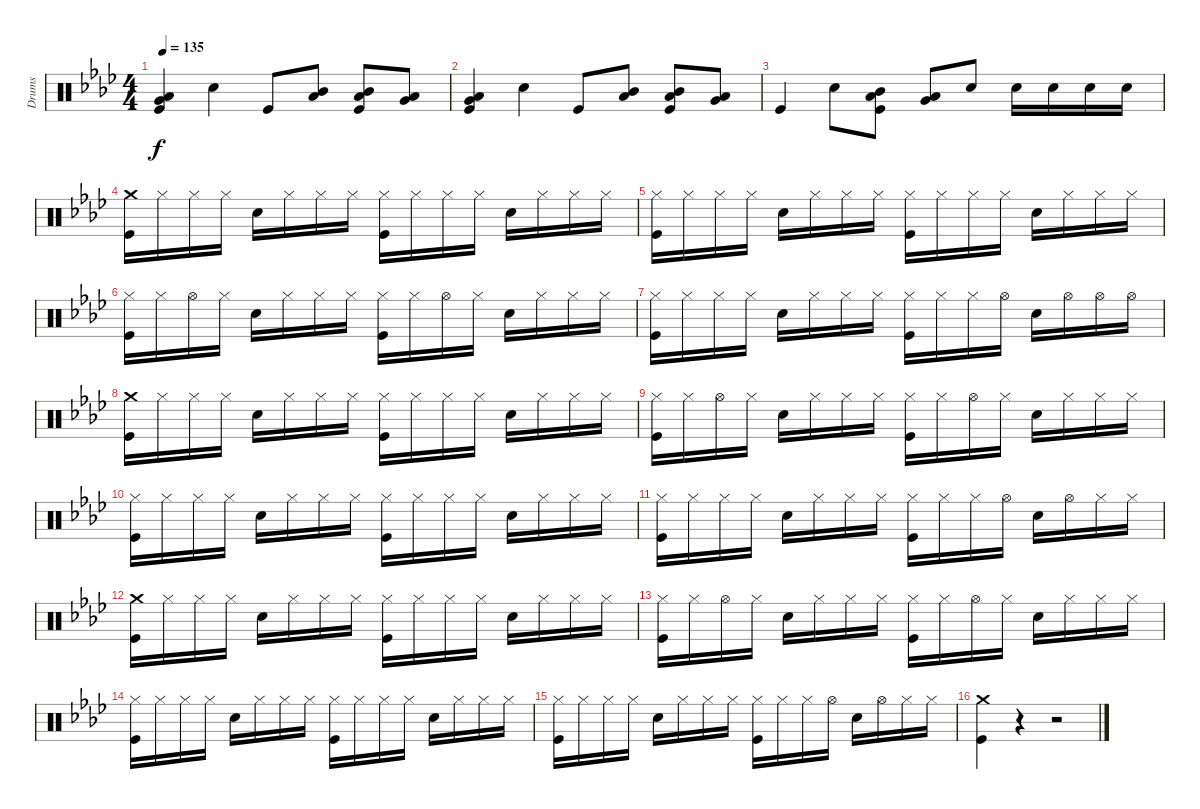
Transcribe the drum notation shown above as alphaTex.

\track ("Drums" "Drums") {instrument percussion}
\staff {score}
\articulation defaults
\ts (4 4)
\tempo 135
\clef neutral
\ks ab
("Very Low Tom (hit)" "Low Tom (hit)" "Kick (hit)").4{dy f} "Snare (hit) 2".4 "Kick (hit)".8 ("Low Tom (hit)" "Mid Tom (hit)").8 ("Low Tom (hit)" "Mid Tom (hit)" "Kick (hit)").8 ("Very Low Tom (hit)" "Low Tom (hit)").8 |
("Very Low Tom (hit)" "Low Tom (hit)" "Kick (hit)").4 "Snare (hit) 2".4 "Kick (hit)".8 ("Low Tom (hit)" "Mid Tom (hit)").8 ("Low Tom (hit)" "Mid Tom (hit)" "Kick (hit)").8 ("Very Low Tom (hit)" "Low Tom (hit)").8 |
"Kick (hit)".4 "Snare (hit) 2".8 ("Low Tom (hit)" "Mid Tom (hit)" "Kick (hit)").8 ("Very Low Tom (hit)" "Low Tom (hit)").8 "Snare (hit) 2".8 "Snare (hit) 2".16 "Snare (hit) 2".16 "Snare (hit) 2".16 "Snare (hit) 2".16 |
("Crash medium (hit)" "Kick (hit)").16 "Hi-Hat (closed)".16 "Hi-Hat (closed)".16 "Hi-Hat (closed)".16 "Snare (hit) 2".16 "Hi-Hat (closed)".16 "Hi-Hat (closed)".16 "Hi-Hat (closed)".16 ("Hi-Hat (closed)" "Kick (hit)").16 "Hi-Hat (closed)".16 "Hi-Hat (closed)".16 "Hi-Hat (closed)".16 "Snare (hit) 2".16 "Hi-Hat (closed)".16 "Hi-Hat (closed)".16 "Hi-Hat (closed)".16 |
("Hi-Hat (closed)" "Kick (hit)").16 "Hi-Hat (closed)".16 "Hi-Hat (closed)".16 "Hi-Hat (closed)".16 "Snare (hit) 2".16 "Hi-Hat (closed)".16 "Hi-Hat (closed)".16 "Hi-Hat (closed)".16 ("Hi-Hat (closed)" "Kick (hit)").16 "Hi-Hat (closed)".16 "Hi-Hat (closed)".16 "Hi-Hat (closed)".16 "Snare (hit) 2".16 "Hi-Hat (closed)".16 "Hi-Hat (closed)".16 "Hi-Hat (closed)".16 |
("Hi-Hat (closed)" "Kick (hit)").16 "Hi-Hat (closed)".16 "Hi-Hat (open)".16 "Hi-Hat (closed)".16 "Snare (hit) 2".16 "Hi-Hat (closed)".16 "Hi-Hat (closed)".16 "Hi-Hat (closed)".16 ("Hi-Hat (closed)" "Kick (hit)").16 "Hi-Hat (closed)".16 "Hi-Hat (open)".16 "Hi-Hat (closed)".16 "Snare (hit) 2".16 "Hi-Hat (closed)".16 "Hi-Hat (closed)".16 "Hi-Hat (closed)".16 |
("Hi-Hat (closed)" "Kick (hit)").16 "Hi-Hat (closed)".16 "Hi-Hat (closed)".16 "Hi-Hat (closed)".16 "Snare (hit) 2".16 "Hi-Hat (closed)".16 "Hi-Hat (closed)".16 "Hi-Hat (closed)".16 ("Hi-Hat (closed)" "Kick (hit)").16 "Hi-Hat (closed)".16 "Hi-Hat (closed)".16 "Hi-Hat (open)".16 "Snare (hit) 2".16 "Hi-Hat (open)".16 "Hi-Hat (open)".16 "Hi-Hat (open)".16 |
("Crash medium (hit)" "Kick (hit)").16 "Hi-Hat (closed)".16 "Hi-Hat (closed)".16 "Hi-Hat (closed)".16 "Snare (hit) 2".16 "Hi-Hat (closed)".16 "Hi-Hat (closed)".16 "Hi-Hat (closed)".16 ("Hi-Hat (closed)" "Kick (hit)").16 "Hi-Hat (closed)".16 "Hi-Hat (closed)".16 "Hi-Hat (closed)".16 "Snare (hit) 2".16 "Hi-Hat (closed)".16 "Hi-Hat (closed)".16 "Hi-Hat (closed)".16 |
("Hi-Hat (closed)" "Kick (hit)").16 "Hi-Hat (closed)".16 "Hi-Hat (open)".16 "Hi-Hat (closed)".16 "Snare (hit) 2".16 "Hi-Hat (closed)".16 "Hi-Hat (closed)".16 "Hi-Hat (closed)".16 ("Hi-Hat (closed)" "Kick (hit)").16 "Hi-Hat (closed)".16 "Hi-Hat (open)".16 "Hi-Hat (closed)".16 "Snare (hit) 2".16 "Hi-Hat (closed)".16 "Hi-Hat (closed)".16 "Hi-Hat (closed)".16 |
("Hi-Hat (closed)" "Kick (hit)").16 "Hi-Hat (closed)".16 "Hi-Hat (closed)".16 "Hi-Hat (closed)".16 "Snare (hit) 2".16 "Hi-Hat (closed)".16 "Hi-Hat (closed)".16 "Hi-Hat (closed)".16 ("Hi-Hat (closed)" "Kick (hit)").16 "Hi-Hat (closed)".16 "Hi-Hat (closed)".16 "Hi-Hat (closed)".16 "Snare (hit) 2".16 "Hi-Hat (closed)".16 "Hi-Hat (closed)".16 "Hi-Hat (closed)".16 |
("Hi-Hat (closed)" "Kick (hit)").16 "Hi-Hat (closed)".16 "Hi-Hat (closed)".16 "Hi-Hat (closed)".16 "Snare (hit) 2".16 "Hi-Hat (closed)".16 "Hi-Hat (closed)".16 "Hi-Hat (closed)".16 ("Hi-Hat (closed)" "Kick (hit)").16 "Hi-Hat (closed)".16 "Hi-Hat (closed)".16 "Hi-Hat (open)".16 "Snare (hit) 2".16 "Hi-Hat (open)".16 "Hi-Hat (closed)".16 "Hi-Hat (closed)".16 |
("Crash medium (hit)" "Kick (hit)").16 "Hi-Hat (closed)".16 "Hi-Hat (closed)".16 "Hi-Hat (closed)".16 "Snare (hit) 2".16 "Hi-Hat (closed)".16 "Hi-Hat (closed)".16 "Hi-Hat (closed)".16 ("Hi-Hat (closed)" "Kick (hit)").16 "Hi-Hat (closed)".16 "Hi-Hat (closed)".16 "Hi-Hat (closed)".16 "Snare (hit) 2".16 "Hi-Hat (closed)".16 "Hi-Hat (closed)".16 "Hi-Hat (closed)".16 |
("Hi-Hat (closed)" "Kick (hit)").16 "Hi-Hat (closed)".16 "Hi-Hat (open)".16 "Hi-Hat (closed)".16 "Snare (hit) 2".16 "Hi-Hat (closed)".16 "Hi-Hat (closed)".16 "Hi-Hat (closed)".16 ("Hi-Hat (closed)" "Kick (hit)").16 "Hi-Hat (closed)".16 "Hi-Hat (open)".16 "Hi-Hat (closed)".16 "Snare (hit) 2".16 "Hi-Hat (closed)".16 "Hi-Hat (closed)".16 "Hi-Hat (closed)".16 |
("Hi-Hat (closed)" "Kick (hit)").16 "Hi-Hat (closed)".16 "Hi-Hat (closed)".16 "Hi-Hat (closed)".16 "Snare (hit) 2".16 "Hi-Hat (closed)".16 "Hi-Hat (closed)".16 "Hi-Hat (closed)".16 ("Hi-Hat (closed)" "Kick (hit)").16 "Hi-Hat (closed)".16 "Hi-Hat (closed)".16 "Hi-Hat (closed)".16 "Snare (hit) 2".16 "Hi-Hat (closed)".16 "Hi-Hat (closed)".16 "Hi-Hat (closed)".16 |
("Hi-Hat (closed)" "Kick (hit)").16 "Hi-Hat (closed)".16 "Hi-Hat (closed)".16 "Hi-Hat (closed)".16 "Snare (hit) 2".16 "Hi-Hat (closed)".16 "Hi-Hat (closed)".16 "Hi-Hat (closed)".16 ("Hi-Hat (closed)" "Kick (hit)").16 "Hi-Hat (closed)".16 "Hi-Hat (closed)".16 "Hi-Hat (open)".16 "Snare (hit) 2".16 "Hi-Hat (open)".16 "Hi-Hat (closed)".16 "Hi-Hat (closed)".16 |
("Crash medium (hit)" "Kick (hit)").4 r.4 r.2
